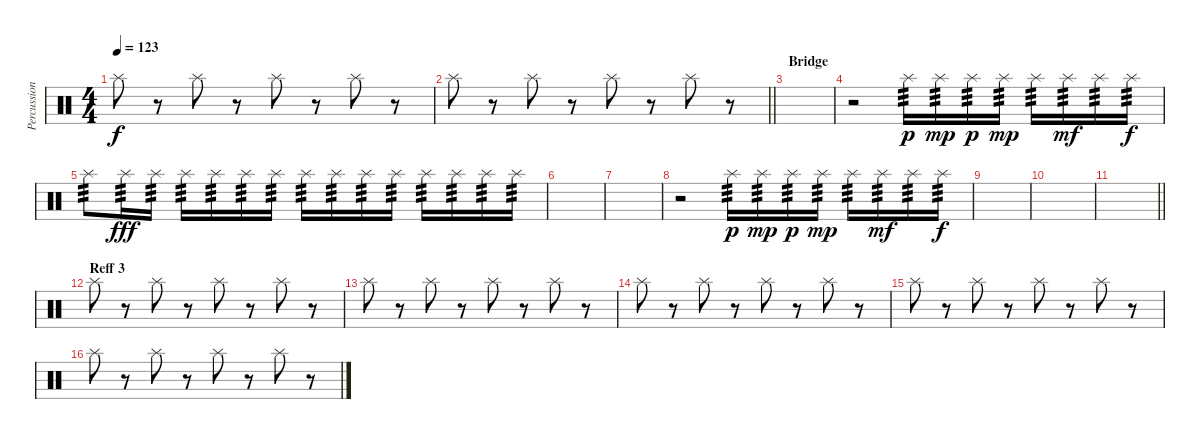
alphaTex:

\track ("Percussion 2" "Percussion") {instrument percussion}
\staff {score}
\articulation defaults
\ts (4 4)
\tempo 123
\clef neutral
\ks c "Splash (hit)".8{dy f}
r.8 "Splash (hit)".8 r.8 "Splash (hit)".8 r.8 "Splash (hit)".8 r.8 |
\barLineRight lightlight "Splash (hit)".8
r.8 "Splash (hit)".8 r.8 "Splash (hit)".8 r.8 "Splash (hit)".8 r.8 |
\section ("" "Bridge")
|
r.2 "Splash (hit)".16{tp 3 dy p} "Splash (hit)".16{tp 3 dy mp} "Splash (hit)".16{tp 3 dy p} "Splash (hit)".16{tp 3 dy mp} "Splash (hit)".16{tp 3} "Splash (hit)".16{tp 3 dy mf} "Splash (hit)".16{tp 3} "Splash (hit)".16{tp 3 dy f} |
"Splash (hit)".8{tp 3 volume 2} "Splash (hit)".16{tp 3 dy fff} "Splash (hit)".16{tp 3} "Splash (hit)".16{tp 3} "Splash (hit)".16{tp 3} "Splash (hit)".16{tp 3} "Splash (hit)".16{tp 3} "Splash (hit)".16{tp 3} "Splash (hit)".16{tp 3} "Splash (hit)".16{tp 3} "Splash (hit)".16{tp 3} "Splash (hit)".16{tp 3} "Splash (hit)".16{tp 3} "Splash (hit)".16{tp 3} "Splash (hit)".16{tp 3} |
|
|
r.2{volume 16} "Splash (hit)".16{tp 3 dy p} "Splash (hit)".16{tp 3 dy mp} "Splash (hit)".16{tp 3 dy p} "Splash (hit)".16{tp 3 dy mp} "Splash (hit)".16{tp 3} "Splash (hit)".16{tp 3 dy mf} "Splash (hit)".16{tp 3} "Splash (hit)".16{tp 3 dy f} |
|
|
\barLineRight lightlight
|
\section ("" "Reff 3")
"Splash (hit)".8 r.8 "Splash (hit)".8 r.8 "Splash (hit)".8 r.8 "Splash (hit)".8 r.8 |
"Splash (hit)".8 r.8 "Splash (hit)".8 r.8 "Splash (hit)".8 r.8 "Splash (hit)".8 r.8 |
"Splash (hit)".8 r.8 "Splash (hit)".8 r.8 "Splash (hit)".8 r.8 "Splash (hit)".8 r.8 |
"Splash (hit)".8 r.8 "Splash (hit)".8 r.8 "Splash (hit)".8 r.8 "Splash (hit)".8 r.8 |
"Splash (hit)".8 r.8 "Splash (hit)".8 r.8 "Splash (hit)".8 r.8 "Splash (hit)".8 r.8
